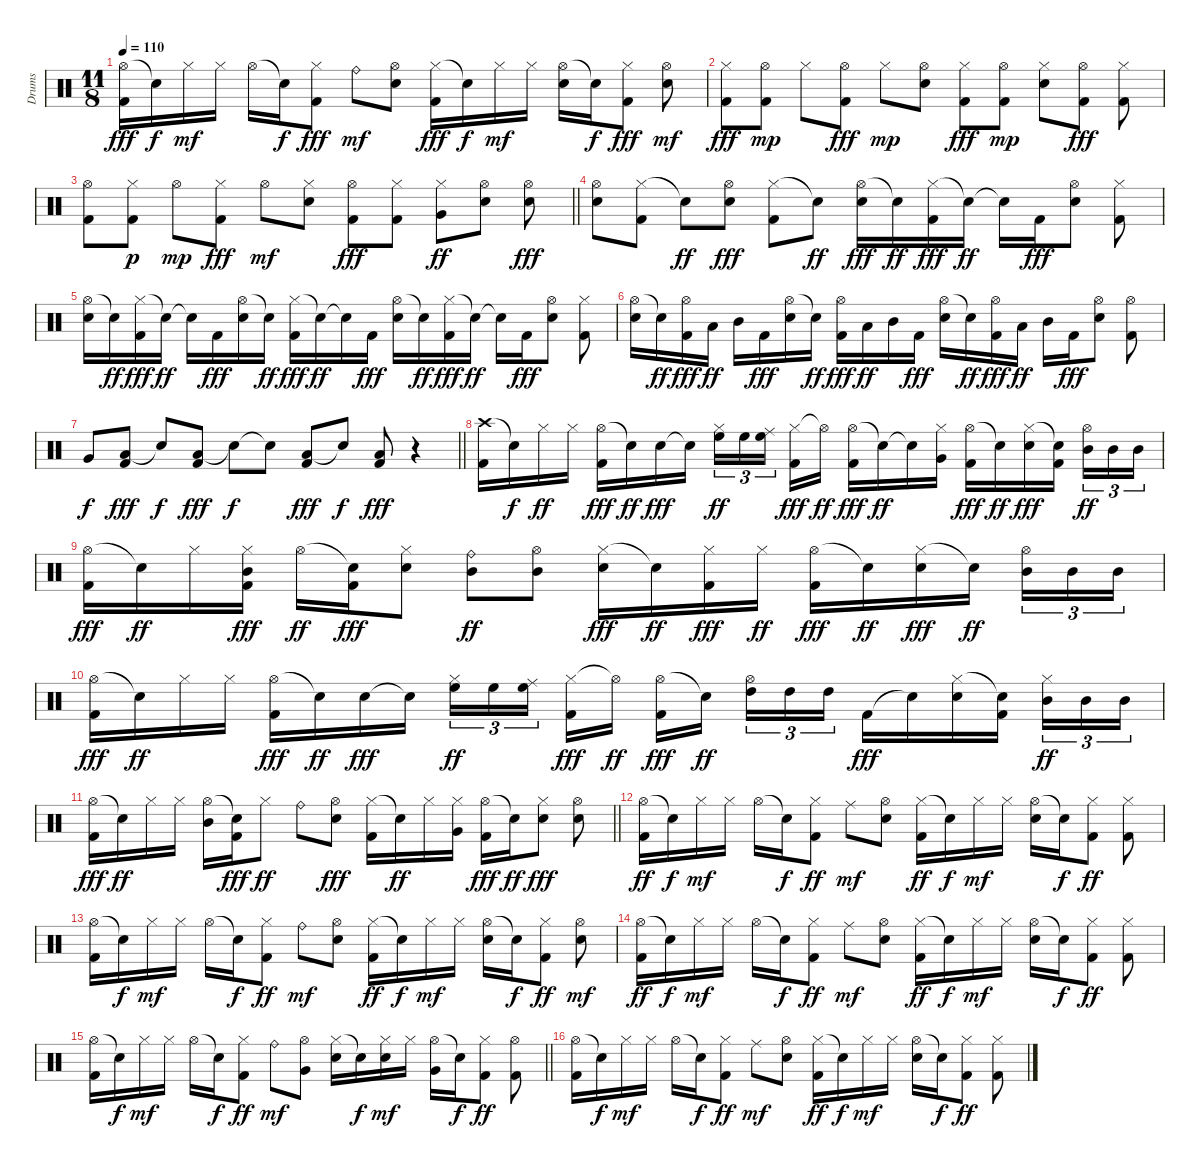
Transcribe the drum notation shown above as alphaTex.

\track ("Drums" "Drums") {instrument percussion}
\staff {score}
\articulation defaults
\ts (11 8)
\tempo 110
\clef neutral
\ks c
("Hi-Hat (open)" "Kick (hit) 2").16{dy fff} "Snare (hit)"{t}.16{dy f} "Hi-Hat (closed)".16{dy mf} "Hi-Hat (closed)".16 "Hi-Hat (open)".16 "Snare (hit)"{t}.16{dy f} ("Hi-Hat (closed)" "Kick (hit) 2").8{dy fff} "Ride (bell)".8{dy mf} ("Hi-Hat (open)" "Snare (hit) 2").8 ("Hi-Hat (closed)" "Kick (hit) 2").16{dy fff} "Snare (hit)"{t}.16{dy f} "Hi-Hat (closed)".16{dy mf} "Hi-Hat (closed)".16 ("Hi-Hat (open)" "Snare (hit) 2").16 "Snare (hit)"{t}.16{dy f} ("Hi-Hat (closed)" "Kick (hit) 2").8{dy fff} ("Hi-Hat (open)" "Snare (hit) 2").8{dy mf} |
("Hi-Hat (closed)" "Kick (hit) 2").8{dy fff} ("Hi-Hat (open)" "Kick (hit) 2").8{dy mp} "Hi-Hat (closed)".8 ("Hi-Hat (open)" "Kick (hit) 2").8{dy fff} "Hi-Hat (closed)".8{dy mp} ("Hi-Hat (open)" "Snare (hit) 2").8 ("Hi-Hat (closed)" "Kick (hit) 2").8{dy fff} ("Hi-Hat (open)" "Kick (hit) 2").8{dy mp} ("Hi-Hat (closed)" "Snare (hit) 2").8 ("Hi-Hat (open)" "Kick (hit) 2").8{dy fff} ("Hi-Hat (closed)" "Kick (hit) 2").8 |
\barLineRight lightlight
("Hi-Hat (open)" "Kick (hit) 2").8 ("Hi-Hat (closed)" "Kick (hit) 2").8{dy p} "Hi-Hat (open)".8{dy mp} ("Hi-Hat (closed)" "Kick (hit) 2").8{dy fff} "Hi-Hat (open)".8{dy mf} ("Hi-Hat (closed)" "Snare (hit) 2").8 ("Hi-Hat (open)" "Kick (hit) 2").8{dy fff} ("Hi-Hat (closed)" "Kick (hit) 2").8 ("Hi-Hat (closed)" "Very Low Tom (hit)").8{dy ff} ("Hi-Hat (open)" "Snare (hit) 2").8 ("Hi-Hat (open)" "Snare (hit) 2").8{dy fff} |
\section ("" "")
("Hi-Hat (open)" "Snare (hit) 2").8 ("Hi-Hat (closed)" "Kick (hit) 2").8 "Snare (hit)"{t}.8{dy ff} ("Hi-Hat (open)" "Snare (hit) 2").8{dy fff} ("Hi-Hat (closed)" "Kick (hit) 2").8 "Snare (hit)"{t}.8{dy ff} ("Hi-Hat (open)" "Snare (hit) 2").16{dy fff} "Snare (hit)"{t}.16{dy ff} ("Hi-Hat (closed)" "Kick (hit) 2").16{dy fff} "Snare (hit)"{t}.16{dy ff} "Snare (hit)"{t}.16 "Kick (hit) 2".16{dy fff} ("Hi-Hat (open)" "Snare (hit) 2").8 ("Hi-Hat (closed)" "Kick (hit) 2").8 |
("Hi-Hat (open)" "Snare (hit) 2").16 "Snare (hit)"{t}.16{dy ff} ("Hi-Hat (closed)" "Kick (hit) 2").16{dy fff} "Snare (hit)"{t}.16{dy ff} "Snare (hit)"{t}.16 "Kick (hit) 2".16{dy fff} ("Hi-Hat (open)" "Snare (hit) 2").16 "Snare (hit)"{t}.16{dy ff} ("Hi-Hat (closed)" "Kick (hit) 2").16{dy fff} "Snare (hit)"{t}.16{dy ff} "Snare (hit)"{t}.16 "Kick (hit) 2".16{dy fff} ("Hi-Hat (open)" "Snare (hit) 2").16 "Snare (hit)"{t}.16{dy ff} ("Hi-Hat (closed)" "Kick (hit) 2").16{dy fff} "Snare (hit)"{t}.16{dy ff} "Snare (hit)"{t}.16 "Kick (hit) 2".16{dy fff} ("Hi-Hat (open)" "Snare (hit) 2").8 ("Hi-Hat (closed)" "Kick (hit) 2").8 |
("Hi-Hat (open)" "Snare (hit) 2").16 "Snare (hit)"{t}.16{dy ff} ("Hi-Hat (open)" "Kick (hit) 2").16{dy fff} "Low Tom (hit)".16{dy ff} "Mid Tom (hit)".16 "Kick (hit) 2".16{dy fff} ("Hi-Hat (open)" "Snare (hit) 2").16 "Snare (hit)"{t}.16{dy ff} ("Hi-Hat (open)" "Kick (hit) 2").16{dy fff} "Low Tom (hit)".16{dy ff} "Mid Tom (hit)".16 "Kick (hit) 2".16{dy fff} ("Hi-Hat (open)" "Snare (hit) 2").16 "Snare (hit)"{t}.16{dy ff} ("Hi-Hat (open)" "Kick (hit) 2").16{dy fff} "Low Tom (hit)".16{dy ff} "Mid Tom (hit)".16 "Kick (hit) 2".16{dy fff} ("Hi-Hat (open)" "Snare (hit) 2").8 ("Hi-Hat (open)" "Kick (hit) 2").8 |
\barLineRight lightlight "Very Low Tom (hit)".8{dy f}
("Low Tom (hit)" "Kick (hit) 2").8{dy fff} "Snare (hit)"{t}.8{dy f} ("Low Tom (hit)" "Kick (hit) 2").8{dy fff} "Snare (hit)"{t}.8{dy f} "Snare (hit)"{t}.8 ("Low Tom (hit)" "Kick (hit) 2").8{dy fff} "Snare (hit)"{t}.8{dy f} ("Low Tom (hit)" "Kick (hit) 2").8{dy fff} r.4 |
\section ("" "")
("Crash high (hit)" "Kick (hit) 2").16 "Snare (hit)"{t}.16{dy f} "Hi-Hat (closed)".16{dy ff} "Hi-Hat (closed)".16 ("Hi-Hat (open)" "Kick (hit) 2").16{dy fff} "Snare (hit)"{t}.16{dy ff} "Snare (hit) 2".16{dy fff} "Snare (hit)"{t}.16 ("Hi-Hat (closed)" "High Floor Tom (hit)").16{tu (3 2) dy ff} "High Floor Tom (hit)".16{tu (3 2)} ("Ride (middle)" "High Floor Tom (hit)").16{tu (3 2)} ("Hi-Hat (closed)" "Kick (hit) 2").16{dy fff} "Hi-Hat (open)"{t}.16{dy ff} ("Hi-Hat (open)" "Kick (hit) 2").16{dy fff} "Snare (hit)"{t}.16{dy ff} "Snare (hit)"{t}.16 ("Hi-Hat (closed)" "Very Low Tom (hit)").16 ("Hi-Hat (open)" "Kick (hit) 2").16{dy fff} "Snare (hit)"{t}.16{dy ff} ("Hi-Hat (closed)" "Snare (hit) 2").16{dy fff} ("Snare (hit)"{t} "Kick (hit) 2").16 ("Hi-Hat (open)" "Mid Tom (hit)").16{tu (3 2) dy ff} "Mid Tom (hit)".16{tu (3 2)} "Mid Tom (hit)".16{tu (3 2)} |
("Hi-Hat (open)" "Kick (hit) 2").16{dy fff} "Snare (hit)"{t}.16{dy ff} "Hi-Hat (closed)".16 ("Hi-Hat (closed)" "Mid Tom (hit)" "Kick (hit) 2").16{dy fff} "Hi-Hat (open)".16{dy ff} ("Snare (hit)"{t} "Kick (hit) 2").16{dy fff} ("Hi-Hat (closed)" "Snare (hit) 2").8 ("Ride (bell)" "Mid Tom (hit)").8{dy ff} ("Hi-Hat (open)" "Mid Tom (hit)").8 ("Hi-Hat (closed)" "Snare (hit) 2").16{dy fff} "Snare (hit)"{t}.16{dy ff} ("Hi-Hat (closed)" "Kick (hit) 2").16{dy fff} "Hi-Hat (closed)".16{dy ff} ("Hi-Hat (open)" "Kick (hit) 2").16{dy fff} "Snare (hit)"{t}.16{dy ff} ("Hi-Hat (closed)" "Snare (hit) 2").16{dy fff} "Snare (hit)"{t}.16{dy ff} ("Hi-Hat (open)" "Mid Tom (hit)").16{tu (3 2)} "Mid Tom (hit)".16{tu (3 2)} "Mid Tom (hit)".16{tu (3 2)} |
("Hi-Hat (open)" "Kick (hit) 2").16{dy fff} "Snare (hit)"{t}.16{dy ff} "Hi-Hat (closed)".16 "Hi-Hat (closed)".16 ("Hi-Hat (open)" "Kick (hit) 2").16{dy fff} "Snare (hit)"{t}.16{dy ff} "Snare (hit) 2".16{dy fff} "Snare (hit)"{t}.16 ("Hi-Hat (closed)" "High Floor Tom (hit)").16{tu (3 2) dy ff} "High Floor Tom (hit)".16{tu (3 2)} ("Ride (middle)" "High Floor Tom (hit)").16{tu (3 2)} ("Hi-Hat (closed)" "Kick (hit) 2").16{dy fff} "Hi-Hat (open)"{t}.16{dy ff} ("Hi-Hat (open)" "Kick (hit) 2").16{dy fff} "Snare (hit)"{t}.16{dy ff} ("Hi-Hat (open)" "High Tom (hit)").16{tu (3 2)} "High Tom (hit)".16{tu (3 2)} "High Tom (hit)".16{tu (3 2)} "Kick (hit) 2".16{dy fff} "Snare (hit)"{t}.16 ("Hi-Hat (closed)" "Snare (hit) 2").16 ("Snare (hit)"{t} "Kick (hit) 2").16 ("Hi-Hat (closed)" "Mid Tom (hit)").16{tu (3 2) dy ff} "Mid Tom (hit)".16{tu (3 2)} "Mid Tom (hit)".16{tu (3 2)} |
\barLineRight lightlight
("Hi-Hat (open)" "Kick (hit) 2").16{dy fff} "Snare (hit)"{t}.16{dy ff} "Hi-Hat (closed)".16 "Hi-Hat (closed)".16 ("Hi-Hat (open)" "Mid Tom (hit)").16 ("Snare (hit)"{t} "Kick (hit) 2").16{dy fff} "Hi-Hat (closed)".8{dy ff} "Ride (bell)".8 ("Hi-Hat (open)" "Snare (hit) 2").8{dy fff} ("Hi-Hat (closed)" "Kick (hit) 2").16 "Snare (hit)"{t}.16{dy ff} "Hi-Hat (closed)".16 ("Hi-Hat (closed)" "Very Low Tom (hit)").16 ("Hi-Hat (open)" "Kick (hit) 2").16{dy fff} "Snare (hit)"{t}.16{dy ff} ("Hi-Hat (closed)" "Snare (hit) 2").8{dy fff} ("Hi-Hat (open)" "Snare (hit) 2").8 |
("Hi-Hat (open)" "Kick (hit) 2").16{dy ff} "Snare (hit)"{t}.16{dy f} "Hi-Hat (closed)".16{dy mf} "Hi-Hat (closed)".16 "Hi-Hat (open)".16 "Snare (hit)"{t}.16{dy f} ("Hi-Hat (closed)" "Kick (hit) 2").8{dy ff} "Ride (middle)".8{dy mf} ("Hi-Hat (open)" "Snare (hit) 2").8 ("Hi-Hat (closed)" "Kick (hit) 2").16{dy ff} "Snare (hit)"{t}.16{dy f} "Hi-Hat (closed)".16{dy mf} "Hi-Hat (closed)".16 ("Hi-Hat (open)" "Snare (hit) 2").16 "Snare (hit)"{t}.16{dy f} ("Hi-Hat (closed)" "Kick (hit) 2").8{dy ff} ("Hi-Hat (closed)" "Kick (hit) 2").8 |
("Hi-Hat (open)" "Kick (hit) 2").16 "Snare (hit)"{t}.16{dy f} "Hi-Hat (closed)".16{dy mf} "Hi-Hat (closed)".16 "Hi-Hat (open)".16 "Snare (hit)"{t}.16{dy f} ("Hi-Hat (closed)" "Kick (hit) 2").8{dy ff} "Ride (bell)".8{dy mf} ("Hi-Hat (open)" "Snare (hit) 2").8 ("Hi-Hat (closed)" "Kick (hit) 2").16{dy ff} "Snare (hit)"{t}.16{dy f} "Hi-Hat (closed)".16{dy mf} "Hi-Hat (closed)".16 ("Hi-Hat (open)" "Snare (hit) 2").16 "Snare (hit)"{t}.16{dy f} ("Hi-Hat (closed)" "Kick (hit) 2").8{dy ff} ("Hi-Hat (open)" "Snare (hit) 2").8{dy mf} |
("Hi-Hat (open)" "Kick (hit) 2").16{dy ff} "Snare (hit)"{t}.16{dy f} "Hi-Hat (closed)".16{dy mf} "Hi-Hat (closed)".16 "Hi-Hat (open)".16 "Snare (hit)"{t}.16{dy f} ("Hi-Hat (closed)" "Kick (hit) 2").8{dy ff} "Ride (middle)".8{dy mf} ("Hi-Hat (open)" "Snare (hit) 2").8 ("Hi-Hat (closed)" "Kick (hit) 2").16{dy ff} "Snare (hit)"{t}.16{dy f} "Hi-Hat (closed)".16{dy mf} "Hi-Hat (closed)".16 ("Hi-Hat (open)" "Snare (hit) 2").16 "Snare (hit)"{t}.16{dy f} ("Hi-Hat (closed)" "Kick (hit) 2").8{dy ff} ("Hi-Hat (closed)" "Kick (hit) 2").8 |
\barLineRight lightlight
("Hi-Hat (open)" "Kick (hit) 2").16 "Snare (hit)"{t}.16{dy f} "Hi-Hat (closed)".16{dy mf} "Hi-Hat (closed)".16 "Hi-Hat (open)".16 "Snare (hit)"{t}.16{dy f} ("Hi-Hat (closed)" "Kick (hit) 2").8{dy ff} "Ride (bell)".8{dy mf} ("Hi-Hat (open)" "Very Low Tom (hit)").8 ("Hi-Hat (closed)" "Snare (hit) 2").16 "Snare (hit)"{t}.16{dy f} ("Hi-Hat (closed)" "Snare (hit) 2").16{dy mf} "Hi-Hat (closed)".16 ("Hi-Hat (open)" "Very Low Tom (hit)").16 "Snare (hit)"{t}.16{dy f} ("Hi-Hat (closed)" "Kick (hit) 2").8{dy ff} ("Hi-Hat (open)" "Kick (hit) 2").8 |
\section ("" "")
("Hi-Hat (open)" "Kick (hit) 2").16 "Snare (hit)"{t}.16{dy f} "Hi-Hat (closed)".16{dy mf} "Hi-Hat (closed)".16 "Hi-Hat (open)".16 "Snare (hit)"{t}.16{dy f} ("Hi-Hat (closed)" "Kick (hit) 2").8{dy ff} "Ride (middle)".8{dy mf} ("Hi-Hat (open)" "Snare (hit) 2").8 ("Hi-Hat (closed)" "Kick (hit) 2").16{dy ff} "Snare (hit)"{t}.16{dy f} "Hi-Hat (closed)".16{dy mf} "Hi-Hat (closed)".16 ("Hi-Hat (open)" "Snare (hit) 2").16 "Snare (hit)"{t}.16{dy f} ("Hi-Hat (closed)" "Kick (hit) 2").8{dy ff} ("Hi-Hat (closed)" "Kick (hit) 2").8
